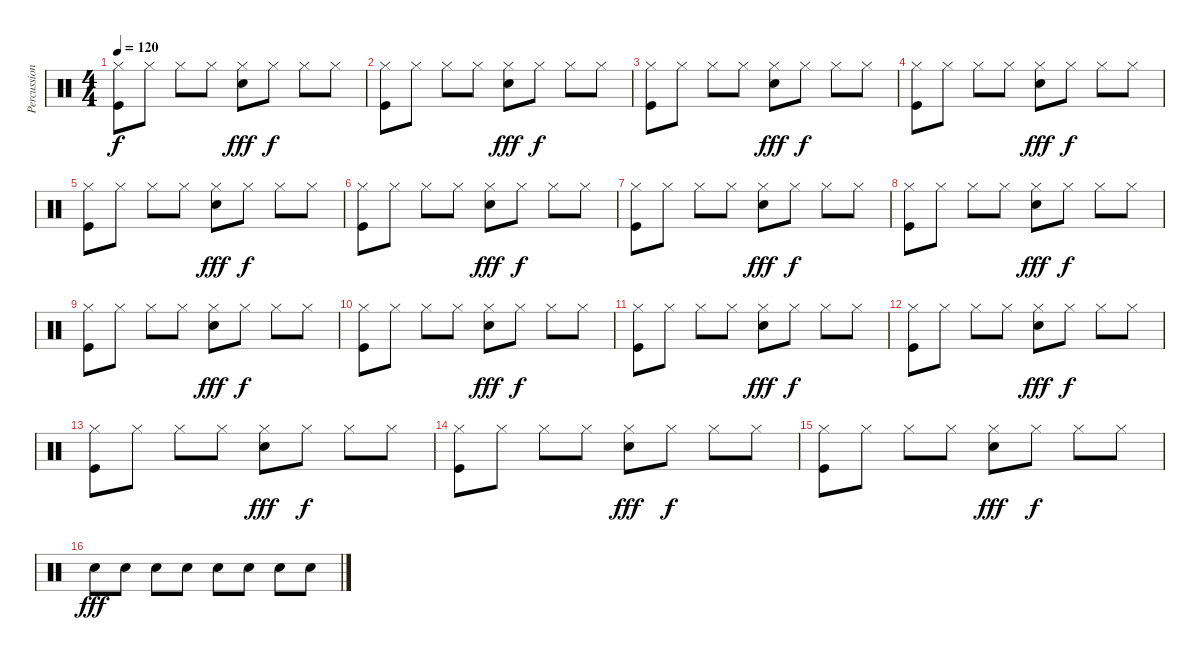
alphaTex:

\track ("Percussions" "Percussion") {instrument percussion}
\staff {score}
\articulation defaults
\ts (4 4)
\tempo 120
\clef neutral
\ks c
("Hi-Hat (closed)" "Kick (hit)").8{dy f} "Hi-Hat (closed)".8 "Hi-Hat (closed)".8 "Hi-Hat (closed)".8 ("Hi-Hat (closed)" "Snare (hit) 2").8{dy fff} "Hi-Hat (closed)".8{dy f} "Hi-Hat (closed)".8 "Hi-Hat (closed)".8 |
("Hi-Hat (closed)" "Kick (hit)").8 "Hi-Hat (closed)".8 "Hi-Hat (closed)".8 "Hi-Hat (closed)".8 ("Hi-Hat (closed)" "Snare (hit) 2").8{dy fff} "Hi-Hat (closed)".8{dy f} "Hi-Hat (closed)".8 "Hi-Hat (closed)".8 |
("Hi-Hat (closed)" "Kick (hit)").8 "Hi-Hat (closed)".8 "Hi-Hat (closed)".8 "Hi-Hat (closed)".8 ("Hi-Hat (closed)" "Snare (hit) 2").8{dy fff} "Hi-Hat (closed)".8{dy f} "Hi-Hat (closed)".8 "Hi-Hat (closed)".8 |
("Hi-Hat (closed)" "Kick (hit)").8 "Hi-Hat (closed)".8 "Hi-Hat (closed)".8 "Hi-Hat (closed)".8 ("Hi-Hat (closed)" "Snare (hit) 2").8{dy fff} "Hi-Hat (closed)".8{dy f} "Hi-Hat (closed)".8 "Hi-Hat (closed)".8 |
("Hi-Hat (closed)" "Kick (hit)").8 "Hi-Hat (closed)".8 "Hi-Hat (closed)".8 "Hi-Hat (closed)".8 ("Hi-Hat (closed)" "Snare (hit) 2").8{dy fff} "Hi-Hat (closed)".8{dy f} "Hi-Hat (closed)".8 "Hi-Hat (closed)".8 |
("Hi-Hat (closed)" "Kick (hit)").8 "Hi-Hat (closed)".8 "Hi-Hat (closed)".8 "Hi-Hat (closed)".8 ("Hi-Hat (closed)" "Snare (hit) 2").8{dy fff} "Hi-Hat (closed)".8{dy f} "Hi-Hat (closed)".8 "Hi-Hat (closed)".8 |
("Hi-Hat (closed)" "Kick (hit)").8 "Hi-Hat (closed)".8 "Hi-Hat (closed)".8 "Hi-Hat (closed)".8 ("Hi-Hat (closed)" "Snare (hit) 2").8{dy fff} "Hi-Hat (closed)".8{dy f} "Hi-Hat (closed)".8 "Hi-Hat (closed)".8 |
("Hi-Hat (closed)" "Kick (hit)").8 "Hi-Hat (closed)".8 "Hi-Hat (closed)".8 "Hi-Hat (closed)".8 ("Hi-Hat (closed)" "Snare (hit) 2").8{dy fff} "Hi-Hat (closed)".8{dy f} "Hi-Hat (closed)".8 "Hi-Hat (closed)".8 |
("Hi-Hat (closed)" "Kick (hit)").8 "Hi-Hat (closed)".8 "Hi-Hat (closed)".8 "Hi-Hat (closed)".8 ("Hi-Hat (closed)" "Snare (hit) 2").8{dy fff} "Hi-Hat (closed)".8{dy f} "Hi-Hat (closed)".8 "Hi-Hat (closed)".8 |
("Hi-Hat (closed)" "Kick (hit)").8 "Hi-Hat (closed)".8 "Hi-Hat (closed)".8 "Hi-Hat (closed)".8 ("Hi-Hat (closed)" "Snare (hit) 2").8{dy fff} "Hi-Hat (closed)".8{dy f} "Hi-Hat (closed)".8 "Hi-Hat (closed)".8 |
("Hi-Hat (closed)" "Kick (hit)").8 "Hi-Hat (closed)".8 "Hi-Hat (closed)".8 "Hi-Hat (closed)".8 ("Hi-Hat (closed)" "Snare (hit) 2").8{dy fff} "Hi-Hat (closed)".8{dy f} "Hi-Hat (closed)".8 "Hi-Hat (closed)".8 |
("Hi-Hat (closed)" "Kick (hit)").8 "Hi-Hat (closed)".8 "Hi-Hat (closed)".8 "Hi-Hat (closed)".8 ("Hi-Hat (closed)" "Snare (hit) 2").8{dy fff} "Hi-Hat (closed)".8{dy f} "Hi-Hat (closed)".8 "Hi-Hat (closed)".8 |
("Hi-Hat (closed)" "Kick (hit)").8 "Hi-Hat (closed)".8 "Hi-Hat (closed)".8 "Hi-Hat (closed)".8 ("Hi-Hat (closed)" "Snare (hit) 2").8{dy fff} "Hi-Hat (closed)".8{dy f} "Hi-Hat (closed)".8 "Hi-Hat (closed)".8 |
("Hi-Hat (closed)" "Kick (hit)").8 "Hi-Hat (closed)".8 "Hi-Hat (closed)".8 "Hi-Hat (closed)".8 ("Hi-Hat (closed)" "Snare (hit) 2").8{dy fff} "Hi-Hat (closed)".8{dy f} "Hi-Hat (closed)".8 "Hi-Hat (closed)".8 |
("Hi-Hat (closed)" "Kick (hit)").8 "Hi-Hat (closed)".8 "Hi-Hat (closed)".8 "Hi-Hat (closed)".8 ("Hi-Hat (closed)" "Snare (hit) 2").8{dy fff} "Hi-Hat (closed)".8{dy f} "Hi-Hat (closed)".8 "Hi-Hat (closed)".8 |
"Snare (hit) 2".8{dy fff} "Snare (hit) 2".8 "Snare (hit) 2".8 "Snare (hit) 2".8 "Snare (hit) 2".8 "Snare (hit) 2".8 "Snare (hit) 2".8 "Snare (hit) 2".8
